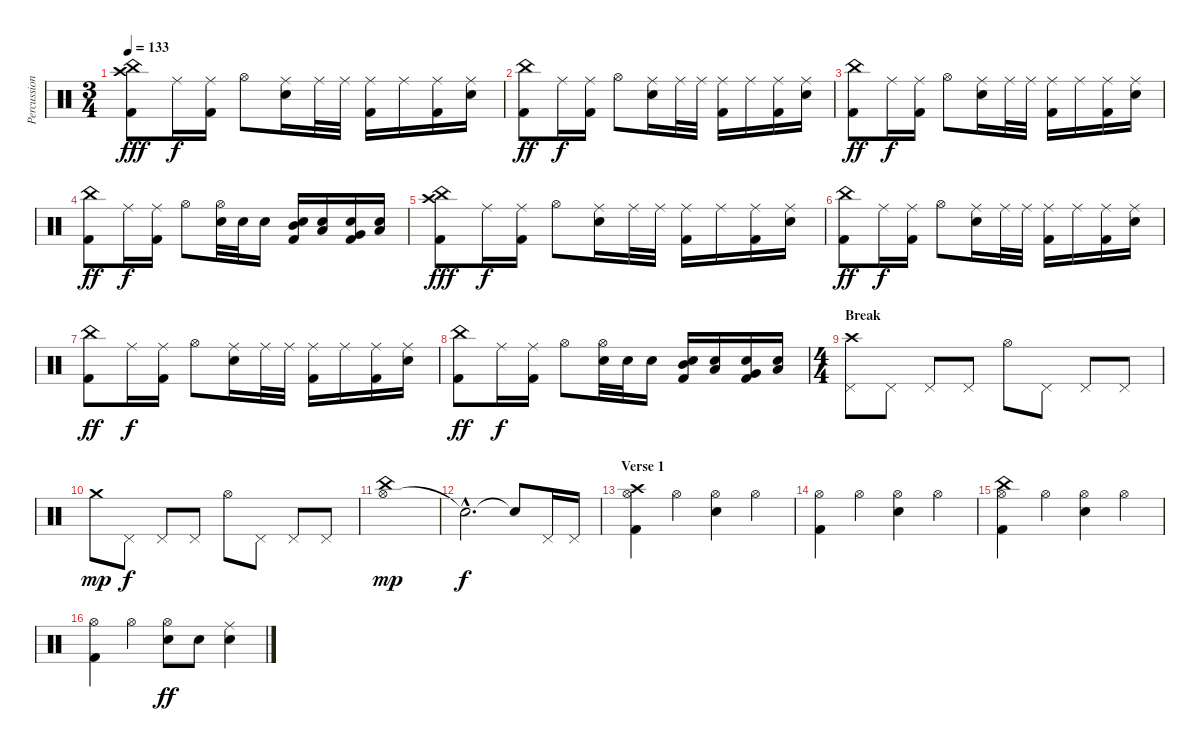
\track ("Percussion" "Percussion") {instrument percussion}
\staff {score}
\articulation defaults
\ts (3 4)
\tempo 133
\clef neutral
\ks c
("China (hit)" "Crash high (hit)" "Kick (hit) 2").8{dy fff} "Ride (middle)".16{dy f} ("Ride (middle)" "Kick (hit) 2").16 "Hi-Hat (open)".8 ("Ride (middle)" "Electric Snare (hit)").16 "Ride (middle)".32 "Ride (middle)".32 ("Ride (middle)" "Kick (hit) 2").16 "Ride (middle)".16 ("Ride (middle)" "Kick (hit) 2").16 ("Ride (middle)" "Electric Snare (hit)").16 |
("China (hit)" "Kick (hit) 2").8{dy ff} "Ride (middle)".16{dy f} ("Ride (middle)" "Kick (hit) 2").16 "Hi-Hat (open)".8 ("Ride (middle)" "Electric Snare (hit)").16 "Ride (middle)".32 "Ride (middle)".32 ("Ride (middle)" "Kick (hit) 2").16 "Ride (middle)".16 ("Ride (middle)" "Kick (hit) 2").16 ("Ride (middle)" "Electric Snare (hit)").16 |
("China (hit)" "Kick (hit) 2").8{dy ff} "Ride (middle)".16{dy f} ("Ride (middle)" "Kick (hit) 2").16 "Hi-Hat (open)".8 ("Ride (middle)" "Electric Snare (hit)").16 "Ride (middle)".32 "Ride (middle)".32 ("Ride (middle)" "Kick (hit) 2").16 "Ride (middle)".16 ("Ride (middle)" "Kick (hit) 2").16 ("Ride (middle)" "Electric Snare (hit)").16 |
("China (hit)" "Kick (hit) 2").8{dy ff} "Ride (middle)".16{dy f} ("Ride (middle)" "Kick (hit) 2").16 "Hi-Hat (open)".8 ("Electric Snare (hit)" "Hi-Hat (open)").32 "Electric Snare (hit)".32 "Electric Snare (hit)".16 ("Electric Snare (hit)" "Mid Tom (hit)" "Kick (hit) 2").16 ("Electric Snare (hit)" "Low Tom (hit)").16 ("Electric Snare (hit)" "Very Low Tom (hit)" "Kick (hit) 2").16 ("Electric Snare (hit)" "Low Floor Tom (hit)").16 |
("China (hit)" "Crash high (hit)" "Kick (hit) 2").8{dy fff} "Ride (middle)".16{dy f} ("Ride (middle)" "Kick (hit) 2").16 "Hi-Hat (open)".8 ("Ride (middle)" "Electric Snare (hit)").16 "Ride (middle)".32 "Ride (middle)".32 ("Ride (middle)" "Kick (hit) 2").16 "Ride (middle)".16 ("Ride (middle)" "Kick (hit) 2").16 ("Ride (middle)" "Electric Snare (hit)").16 |
("China (hit)" "Kick (hit) 2").8{dy ff} "Ride (middle)".16{dy f} ("Ride (middle)" "Kick (hit) 2").16 "Hi-Hat (open)".8 ("Ride (middle)" "Electric Snare (hit)").16 "Ride (middle)".32 "Ride (middle)".32 ("Ride (middle)" "Kick (hit) 2").16 "Ride (middle)".16 ("Ride (middle)" "Kick (hit) 2").16 ("Ride (middle)" "Electric Snare (hit)").16 |
("China (hit)" "Kick (hit) 2").8{dy ff} "Ride (middle)".16{dy f} ("Ride (middle)" "Kick (hit) 2").16 "Hi-Hat (open)".8 ("Ride (middle)" "Electric Snare (hit)").16 "Ride (middle)".32 "Ride (middle)".32 ("Ride (middle)" "Kick (hit) 2").16 "Ride (middle)".16 ("Ride (middle)" "Kick (hit) 2").16 ("Ride (middle)" "Electric Snare (hit)").16 |
("China (hit)" "Kick (hit) 2").8{dy ff} "Ride (middle)".16{dy f} ("Ride (middle)" "Kick (hit) 2").16 "Hi-Hat (open)".8 ("Electric Snare (hit)" "Hi-Hat (open)").32 "Electric Snare (hit)".32 "Electric Snare (hit)".16 ("Electric Snare (hit)" "Mid Tom (hit)" "Kick (hit) 2").16 ("Electric Snare (hit)" "Low Tom (hit)").16 ("Electric Snare (hit)" "Very Low Tom (hit)" "Kick (hit) 2").16 ("Electric Snare (hit)" "Low Floor Tom (hit)").16 |
\ts (4 4)
\section ("" "Break")
("Pedal Hi-Hat (hit)" "Crash high (hit)").8{volume 14} "Pedal Hi-Hat (hit)".8 "Pedal Hi-Hat (hit)".8 "Pedal Hi-Hat (hit)".8 "Hi-Hat (open)".8 "Pedal Hi-Hat (hit)".8 "Pedal Hi-Hat (hit)".8 "Pedal Hi-Hat (hit)".8 |
"Crash medium (hit)".8{dy mp} "Pedal Hi-Hat (hit)".8{dy f} "Pedal Hi-Hat (hit)".8 "Pedal Hi-Hat (hit)".8 "Hi-Hat (open)".8 "Pedal Hi-Hat (hit)".8 "Pedal Hi-Hat (hit)".8 "Pedal Hi-Hat (hit)".8 |
("Hi-Hat (open)" "China (hit)").1{dy mp} |
"Snare (hit)"{hac t}.2{d dy f} "Snare (hit)"{t}.8 "Pedal Hi-Hat (hit)".16 "Pedal Hi-Hat (hit)".16 |
\section ("" "Verse 1")
("Hi-Hat (open)" "Crash high (hit)" "Kick (hit) 2").4 "Hi-Hat (open)".4 ("Hi-Hat (open)" "Electric Snare (hit)").4 "Hi-Hat (open)".4 |
("Hi-Hat (open)" "Kick (hit) 2").4 "Hi-Hat (open)".4 ("Hi-Hat (open)" "Electric Snare (hit)").4 "Hi-Hat (open)".4 |
("Hi-Hat (open)" "China (hit)" "Kick (hit) 2").4 "Hi-Hat (open)".4 ("Hi-Hat (open)" "Electric Snare (hit)").4 "Hi-Hat (open)".4 |
("Hi-Hat (open)" "Kick (hit) 2").4 "Hi-Hat (open)".4 ("Hi-Hat (open)" "Electric Snare (hit)").8{dy ff} "Electric Snare (hit)".8 ("Ride (middle)" "Electric Snare (hit)").4
